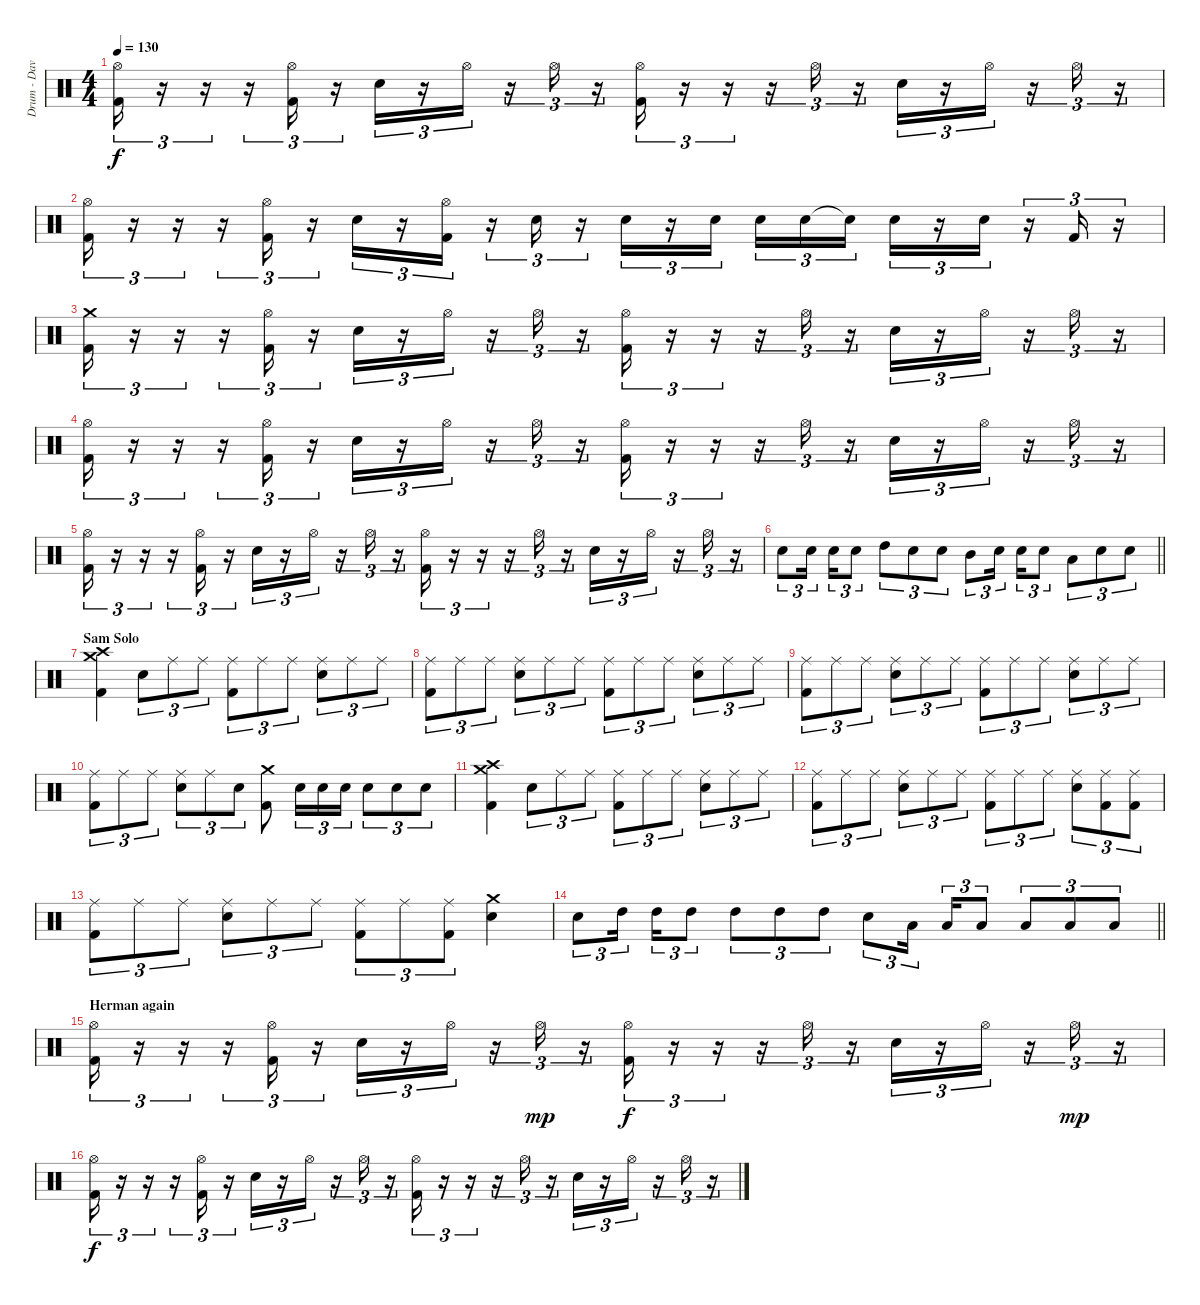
\track ("Drum - Dave Mackintosh" "Drum - Dav") {instrument percussion}
\staff {score}
\articulation defaults
\ts (4 4)
\tempo 130
\clef neutral
\ks c
("Hi-Hat (open)" "Kick (hit) 2").16{tu (3 2) dy f} r.16{tu (3 2)} r.16{tu (3 2)} r.16{tu (3 2)} ("Hi-Hat (open)" "Kick (hit) 2").16{tu (3 2)} r.16{tu (3 2)} "Electric Snare (hit)".16{tu (3 2)} r.16{tu (3 2)} "Hi-Hat (open)".16{tu (3 2)} r.16{tu (3 2)} "Hi-Hat (open)".16{tu (3 2)} r.16{tu (3 2)} ("Hi-Hat (open)" "Kick (hit) 2").16{tu (3 2)} r.16{tu (3 2)} r.16{tu (3 2)} r.16{tu (3 2)} "Hi-Hat (open)".16{tu (3 2)} r.16{tu (3 2)} "Electric Snare (hit)".16{tu (3 2)} r.16{tu (3 2)} "Hi-Hat (open)".16{tu (3 2)} r.16{tu (3 2)} "Hi-Hat (open)".16{tu (3 2)} r.16{tu (3 2)} |
("Hi-Hat (open)" "Kick (hit) 2").16{tu (3 2)} r.16{tu (3 2)} r.16{tu (3 2)} r.16{tu (3 2)} ("Hi-Hat (open)" "Kick (hit) 2").16{tu (3 2)} r.16{tu (3 2)} "Electric Snare (hit)".16{tu (3 2)} r.16{tu (3 2)} ("Hi-Hat (open)" "Kick (hit) 2").16{tu (3 2)} r.16{tu (3 2)} "Electric Snare (hit)".16{tu (3 2)} r.16{tu (3 2)} "Electric Snare (hit)".16{tu (3 2)} r.16{tu (3 2)} "Electric Snare (hit)".16{tu (3 2) beam splitsecondary} "Electric Snare (hit)".16{tu (3 2)} "Electric Snare (hit)".16{tu (3 2)} "Electric Snare (hit)"{t}.16{tu (3 2)} "Electric Snare (hit)".16{tu (3 2)} r.16{tu (3 2)} "Electric Snare (hit)".16{tu (3 2)} r.16{tu (3 2)} "Kick (hit) 2".16{tu (3 2)} r.16{tu (3 2)} |
("Crash medium (hit)" "Kick (hit) 2").16{tu (3 2)} r.16{tu (3 2)} r.16{tu (3 2)} r.16{tu (3 2)} ("Hi-Hat (open)" "Kick (hit) 2").16{tu (3 2)} r.16{tu (3 2)} "Electric Snare (hit)".16{tu (3 2)} r.16{tu (3 2)} "Hi-Hat (open)".16{tu (3 2)} r.16{tu (3 2)} "Hi-Hat (open)".16{tu (3 2)} r.16{tu (3 2)} ("Hi-Hat (open)" "Kick (hit) 2").16{tu (3 2)} r.16{tu (3 2)} r.16{tu (3 2)} r.16{tu (3 2)} "Hi-Hat (open)".16{tu (3 2)} r.16{tu (3 2)} "Electric Snare (hit)".16{tu (3 2)} r.16{tu (3 2)} "Hi-Hat (open)".16{tu (3 2)} r.16{tu (3 2)} "Hi-Hat (open)".16{tu (3 2)} r.16{tu (3 2)} |
("Hi-Hat (open)" "Kick (hit) 2").16{tu (3 2)} r.16{tu (3 2)} r.16{tu (3 2)} r.16{tu (3 2)} ("Hi-Hat (open)" "Kick (hit) 2").16{tu (3 2)} r.16{tu (3 2)} "Electric Snare (hit)".16{tu (3 2)} r.16{tu (3 2)} "Hi-Hat (open)".16{tu (3 2)} r.16{tu (3 2)} "Hi-Hat (open)".16{tu (3 2)} r.16{tu (3 2)} ("Hi-Hat (open)" "Kick (hit) 2").16{tu (3 2)} r.16{tu (3 2)} r.16{tu (3 2)} r.16{tu (3 2)} "Hi-Hat (open)".16{tu (3 2)} r.16{tu (3 2)} "Electric Snare (hit)".16{tu (3 2)} r.16{tu (3 2)} "Hi-Hat (open)".16{tu (3 2)} r.16{tu (3 2)} "Hi-Hat (open)".16{tu (3 2)} r.16{tu (3 2)} |
("Hi-Hat (open)" "Kick (hit) 2").16{tu (3 2)} r.16{tu (3 2)} r.16{tu (3 2)} r.16{tu (3 2)} ("Hi-Hat (open)" "Kick (hit) 2").16{tu (3 2)} r.16{tu (3 2)} "Electric Snare (hit)".16{tu (3 2)} r.16{tu (3 2)} "Hi-Hat (open)".16{tu (3 2)} r.16{tu (3 2)} "Hi-Hat (open)".16{tu (3 2)} r.16{tu (3 2)} ("Hi-Hat (open)" "Kick (hit) 2").16{tu (3 2)} r.16{tu (3 2)} r.16{tu (3 2)} r.16{tu (3 2)} "Hi-Hat (open)".16{tu (3 2)} r.16{tu (3 2)} "Electric Snare (hit)".16{tu (3 2)} r.16{tu (3 2)} "Hi-Hat (open)".16{tu (3 2)} r.16{tu (3 2)} "Hi-Hat (open)".16{tu (3 2)} r.16{tu (3 2)} |
\barLineRight lightlight "Electric Snare (hit)".8{tu (3 2)} "Electric Snare (hit)".16{tu (3 2) beam splitsecondary} "Electric Snare (hit)".16{tu (3 2)} "Electric Snare (hit)".8{tu (3 2)} "High Tom (hit)".8{tu (3 2)} "Electric Snare (hit)".8{tu (3 2)} "Electric Snare (hit)".8{tu (3 2)} "Mid Tom (hit)".8{tu (3 2)} "Electric Snare (hit)".16{tu (3 2) beam splitsecondary} "Electric Snare (hit)".16{tu (3 2)} "Electric Snare (hit)".8{tu (3 2)} "Low Tom (hit)".8{tu (3 2)} "Electric Snare (hit)".8{tu (3 2)} "Electric Snare (hit)".8{tu (3 2)}
|
\section ("" "Sam Solo")
("Crash medium (hit)" "Crash high (hit)" "Kick (hit) 2").4 "Electric Snare (hit)".8{tu (3 2)} "Ride (middle)".8{tu (3 2)} "Ride (middle)".8{tu (3 2)} ("Ride (middle)" "Kick (hit) 2").8{tu (3 2)} "Ride (middle)".8{tu (3 2)} "Ride (middle)".8{tu (3 2)} ("Ride (middle)" "Electric Snare (hit)").8{tu (3 2)} "Ride (middle)".8{tu (3 2)} "Ride (middle)".8{tu (3 2)} |
("Ride (middle)" "Kick (hit) 2").8{tu (3 2)} "Ride (middle)".8{tu (3 2)} "Ride (middle)".8{tu (3 2)} ("Ride (middle)" "Electric Snare (hit)").8{tu (3 2)} "Ride (middle)".8{tu (3 2)} "Ride (middle)".8{tu (3 2)} ("Ride (middle)" "Kick (hit) 2").8{tu (3 2)} "Ride (middle)".8{tu (3 2)} "Ride (middle)".8{tu (3 2)} ("Ride (middle)" "Electric Snare (hit)").8{tu (3 2)} "Ride (middle)".8{tu (3 2)} "Ride (middle)".8{tu (3 2)} |
("Ride (middle)" "Kick (hit) 2").8{tu (3 2)} "Ride (middle)".8{tu (3 2)} "Ride (middle)".8{tu (3 2)} ("Ride (middle)" "Electric Snare (hit)").8{tu (3 2)} "Ride (middle)".8{tu (3 2)} "Ride (middle)".8{tu (3 2)} ("Ride (middle)" "Kick (hit) 2").8{tu (3 2)} "Ride (middle)".8{tu (3 2)} "Ride (middle)".8{tu (3 2)} ("Ride (middle)" "Electric Snare (hit)").8{tu (3 2)} "Ride (middle)".8{tu (3 2)} "Ride (middle)".8{tu (3 2)} |
("Ride (middle)" "Kick (hit) 2").8{tu (3 2)} "Ride (middle)".8{tu (3 2)} "Ride (middle)".8{tu (3 2)} ("Ride (middle)" "Electric Snare (hit)").8{tu (3 2)} "Ride (middle)".8{tu (3 2)} "Electric Snare (hit)".8{tu (3 2)} ("Crash medium (hit)" "Kick (hit) 2").8 "Electric Snare (hit)".16{tu (3 2)} "Electric Snare (hit)".16{tu (3 2)} "Electric Snare (hit)".16{tu (3 2)} "Electric Snare (hit)".8{tu (3 2)} "Electric Snare (hit)".8{tu (3 2)} "Electric Snare (hit)".8{tu (3 2)} |
("Crash medium (hit)" "Crash high (hit)" "Kick (hit) 2").4 "Electric Snare (hit)".8{tu (3 2)} "Ride (middle)".8{tu (3 2)} "Ride (middle)".8{tu (3 2)} ("Ride (middle)" "Kick (hit) 2").8{tu (3 2)} "Ride (middle)".8{tu (3 2)} "Ride (middle)".8{tu (3 2)} ("Ride (middle)" "Electric Snare (hit)").8{tu (3 2)} "Ride (middle)".8{tu (3 2)} "Ride (middle)".8{tu (3 2)} |
("Ride (middle)" "Kick (hit) 2").8{tu (3 2)} "Ride (middle)".8{tu (3 2)} "Ride (middle)".8{tu (3 2)} ("Ride (middle)" "Electric Snare (hit)").8{tu (3 2)} "Ride (middle)".8{tu (3 2)} "Ride (middle)".8{tu (3 2)} ("Ride (middle)" "Kick (hit) 2").8{tu (3 2)} "Ride (middle)".8{tu (3 2)} "Ride (middle)".8{tu (3 2)} ("Ride (middle)" "Electric Snare (hit)").8{tu (3 2)} ("Ride (middle)" "Kick (hit) 2").8{tu (3 2)} ("Ride (middle)" "Kick (hit) 2").8{tu (3 2)} |
("Ride (middle)" "Kick (hit) 2").8{tu (3 2)} "Ride (middle)".8{tu (3 2)} "Ride (middle)".8{tu (3 2)} ("Ride (middle)" "Electric Snare (hit)").8{tu (3 2)} "Ride (middle)".8{tu (3 2)} "Ride (middle)".8{tu (3 2)} ("Ride (middle)" "Kick (hit) 2").8{tu (3 2)} "Ride (middle)".8{tu (3 2)} ("Ride (middle)" "Kick (hit) 2").8{tu (3 2)} ("Crash medium (hit)" "Electric Snare (hit)").4 |
\barLineRight lightlight "Electric Snare (hit)".8{tu (3 2)} "High Tom (hit)".16{tu (3 2) beam splitsecondary} "High Tom (hit)".16{tu (3 2)} "High Tom (hit)".8{tu (3 2)} "High Tom (hit)".8{tu (3 2)} "High Tom (hit)".8{tu (3 2)} "High Tom (hit)".8{tu (3 2)} "Electric Snare (hit)".8{tu (3 2)} "Low Tom (hit)".16{tu (3 2) beam splitsecondary} "Low Tom (hit)".16{tu (3 2)} "Low Tom (hit)".8{tu (3 2)} "Low Tom (hit)".8{tu (3 2)} "Low Tom (hit)".8{tu (3 2)} "Low Tom (hit)".8{tu (3 2)}
|
\section ("" "Herman again")
("Hi-Hat (open)" "Kick (hit) 2").16{tu (3 2)} r.16{tu (3 2)} r.16{tu (3 2)} r.16{tu (3 2)} ("Hi-Hat (open)" "Kick (hit) 2").16{tu (3 2)} r.16{tu (3 2)} "Electric Snare (hit)".16{tu (3 2)} r.16{tu (3 2)} "Hi-Hat (open)".16{tu (3 2)} r.16{tu (3 2)} "Hi-Hat (open)".16{tu (3 2) dy mp} r.16{tu (3 2)} ("Hi-Hat (open)" "Kick (hit) 2").16{tu (3 2) dy f} r.16{tu (3 2)} r.16{tu (3 2)} r.16{tu (3 2)} "Hi-Hat (open)".16{tu (3 2)} r.16{tu (3 2)} "Electric Snare (hit)".16{tu (3 2)} r.16{tu (3 2)} "Hi-Hat (open)".16{tu (3 2)} r.16{tu (3 2)} "Hi-Hat (open)".16{tu (3 2) dy mp} r.16{tu (3 2)} |
("Hi-Hat (open)" "Kick (hit) 2").16{tu (3 2) dy f} r.16{tu (3 2)} r.16{tu (3 2)} r.16{tu (3 2)} ("Hi-Hat (open)" "Kick (hit) 2").16{tu (3 2)} r.16{tu (3 2)} "Electric Snare (hit)".16{tu (3 2)} r.16{tu (3 2)} "Hi-Hat (open)".16{tu (3 2)} r.16{tu (3 2)} "Hi-Hat (open)".16{tu (3 2)} r.16{tu (3 2)} ("Hi-Hat (open)" "Kick (hit) 2").16{tu (3 2)} r.16{tu (3 2)} r.16{tu (3 2)} r.16{tu (3 2)} "Hi-Hat (open)".16{tu (3 2)} r.16{tu (3 2)} "Electric Snare (hit)".16{tu (3 2)} r.16{tu (3 2)} "Hi-Hat (open)".16{tu (3 2)} r.16{tu (3 2)} "Hi-Hat (open)".16{tu (3 2)} r.16{tu (3 2)}
